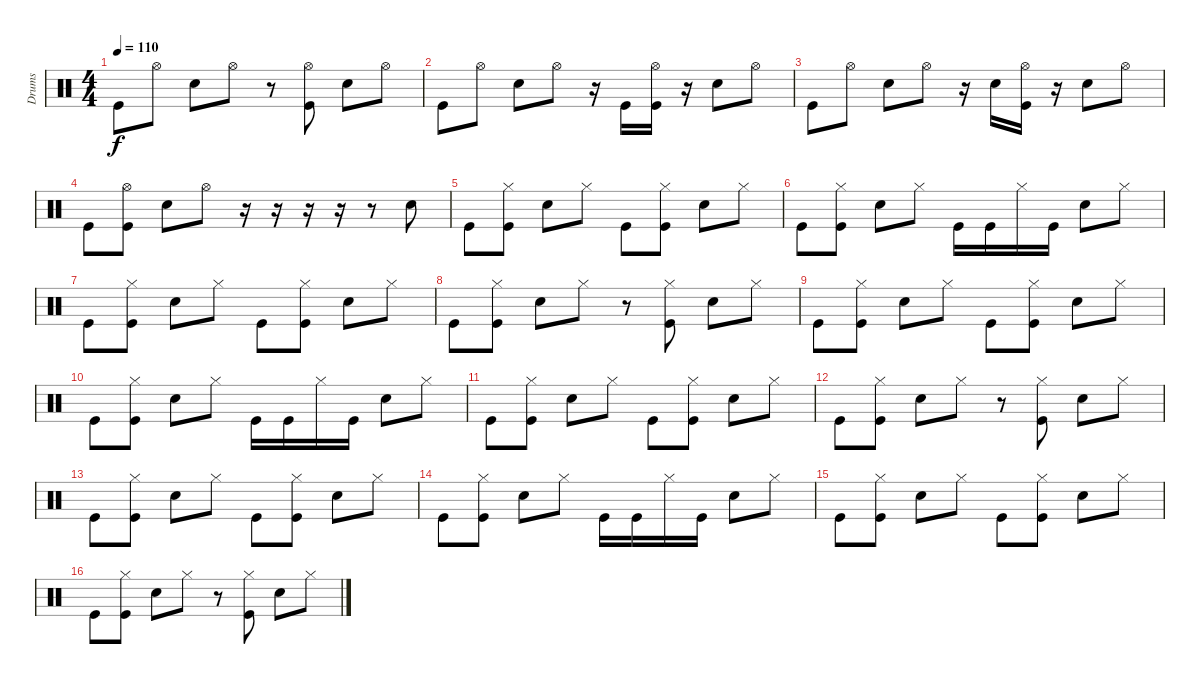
\track ("Drums" "Drums") {instrument percussion}
\staff {score}
\articulation defaults
\ts (4 4)
\tempo 110
\clef neutral
\ks c "Kick (hit)".8{dy f} "Hi-Hat (open)".8 "Electric Snare (hit)".8 "Hi-Hat (open)".8
r.8 ("Hi-Hat (open)" "Kick (hit)").8 "Electric Snare (hit)".8 "Hi-Hat (open)".8 |
"Kick (hit)".8 "Hi-Hat (open)".8 "Electric Snare (hit)".8 "Hi-Hat (open)".8 r.16 "Kick (hit)".16 ("Hi-Hat (open)" "Kick (hit)").16 r.16 "Electric Snare (hit)".8 "Hi-Hat (open)".8 |
"Kick (hit)".8 "Hi-Hat (open)".8 "Electric Snare (hit)".8 "Hi-Hat (open)".8 r.16 "Electric Snare (hit)".16 ("Hi-Hat (open)" "Kick (hit)").16 r.16 "Electric Snare (hit)".8 "Hi-Hat (open)".8 |
"Kick (hit)".8 ("Hi-Hat (open)" "Kick (hit)").8 "Electric Snare (hit)".8 "Hi-Hat (open)".8 r.16 r.16 r.16 r.16 r.8 "Electric Snare (hit)".8 |
"Kick (hit)".8 ("Hi-Hat (closed)" "Kick (hit)").8 "Electric Snare (hit)".8 "Hi-Hat (closed)".8 "Kick (hit)".8 ("Hi-Hat (closed)" "Kick (hit)").8 "Electric Snare (hit)".8 "Hi-Hat (closed)".8 |
"Kick (hit)".8 ("Hi-Hat (closed)" "Kick (hit)").8 "Electric Snare (hit)".8 "Hi-Hat (closed)".8 "Kick (hit)".16 "Kick (hit)".16 "Hi-Hat (closed)".16 "Kick (hit)".16 "Electric Snare (hit)".8 "Hi-Hat (closed)".8 |
"Kick (hit)".8 ("Hi-Hat (closed)" "Kick (hit)").8 "Electric Snare (hit)".8 "Hi-Hat (closed)".8 "Kick (hit)".8 ("Hi-Hat (closed)" "Kick (hit)").8 "Electric Snare (hit)".8 "Hi-Hat (closed)".8 |
"Kick (hit)".8 ("Hi-Hat (closed)" "Kick (hit)").8 "Electric Snare (hit)".8 "Hi-Hat (closed)".8 r.8 ("Hi-Hat (closed)" "Kick (hit)").8 "Electric Snare (hit)".8 "Hi-Hat (closed)".8 |
"Kick (hit)".8 ("Hi-Hat (closed)" "Kick (hit)").8 "Electric Snare (hit)".8 "Hi-Hat (closed)".8 "Kick (hit)".8 ("Hi-Hat (closed)" "Kick (hit)").8 "Electric Snare (hit)".8 "Hi-Hat (closed)".8 |
"Kick (hit)".8 ("Hi-Hat (closed)" "Kick (hit)").8 "Electric Snare (hit)".8 "Hi-Hat (closed)".8 "Kick (hit)".16 "Kick (hit)".16 "Hi-Hat (closed)".16 "Kick (hit)".16 "Electric Snare (hit)".8 "Hi-Hat (closed)".8 |
"Kick (hit)".8 ("Hi-Hat (closed)" "Kick (hit)").8 "Electric Snare (hit)".8 "Hi-Hat (closed)".8 "Kick (hit)".8 ("Hi-Hat (closed)" "Kick (hit)").8 "Electric Snare (hit)".8 "Hi-Hat (closed)".8 |
"Kick (hit)".8 ("Hi-Hat (closed)" "Kick (hit)").8 "Electric Snare (hit)".8 "Hi-Hat (closed)".8 r.8 ("Hi-Hat (closed)" "Kick (hit)").8 "Electric Snare (hit)".8 "Hi-Hat (closed)".8 |
"Kick (hit)".8 ("Hi-Hat (closed)" "Kick (hit)").8 "Electric Snare (hit)".8 "Hi-Hat (closed)".8 "Kick (hit)".8 ("Hi-Hat (closed)" "Kick (hit)").8 "Electric Snare (hit)".8 "Hi-Hat (closed)".8 |
"Kick (hit)".8 ("Hi-Hat (closed)" "Kick (hit)").8 "Electric Snare (hit)".8 "Hi-Hat (closed)".8 "Kick (hit)".16 "Kick (hit)".16 "Hi-Hat (closed)".16 "Kick (hit)".16 "Electric Snare (hit)".8 "Hi-Hat (closed)".8 |
"Kick (hit)".8 ("Hi-Hat (closed)" "Kick (hit)").8 "Electric Snare (hit)".8 "Hi-Hat (closed)".8 "Kick (hit)".8 ("Hi-Hat (closed)" "Kick (hit)").8 "Electric Snare (hit)".8 "Hi-Hat (closed)".8 |
"Kick (hit)".8 ("Hi-Hat (closed)" "Kick (hit)").8 "Electric Snare (hit)".8 "Hi-Hat (closed)".8 r.8 ("Hi-Hat (closed)" "Kick (hit)").8 "Electric Snare (hit)".8 "Hi-Hat (closed)".8
